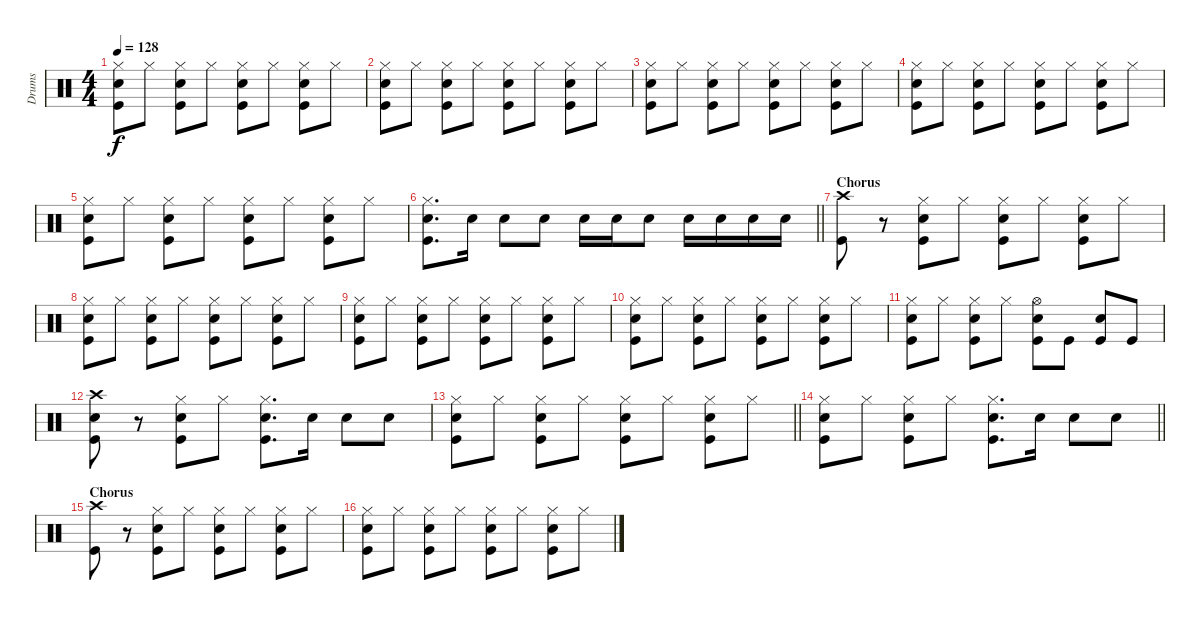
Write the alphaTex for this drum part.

\track ("Drums" "Drums") {instrument percussion}
\staff {score}
\articulation defaults
\ts (4 4)
\tempo 128
\clef neutral
\ks c
("Hi-Hat (closed)" "Snare (hit) 2" "Kick (hit)").8{dy f} "Hi-Hat (closed)".8 ("Hi-Hat (closed)" "Snare (hit) 2" "Kick (hit)").8 "Hi-Hat (closed)".8 ("Hi-Hat (closed)" "Snare (hit) 2" "Kick (hit)").8 "Hi-Hat (closed)".8 ("Hi-Hat (closed)" "Snare (hit) 2" "Kick (hit)").8 "Hi-Hat (closed)".8 |
("Hi-Hat (closed)" "Snare (hit) 2" "Kick (hit)").8 "Hi-Hat (closed)".8 ("Hi-Hat (closed)" "Snare (hit) 2" "Kick (hit)").8 "Hi-Hat (closed)".8 ("Hi-Hat (closed)" "Snare (hit) 2" "Kick (hit)").8 "Hi-Hat (closed)".8 ("Hi-Hat (closed)" "Snare (hit) 2" "Kick (hit)").8 "Hi-Hat (closed)".8 |
("Hi-Hat (closed)" "Snare (hit) 2" "Kick (hit)").8 "Hi-Hat (closed)".8 ("Hi-Hat (closed)" "Snare (hit) 2" "Kick (hit)").8 "Hi-Hat (closed)".8 ("Hi-Hat (closed)" "Snare (hit) 2" "Kick (hit)").8 "Hi-Hat (closed)".8 ("Hi-Hat (closed)" "Snare (hit) 2" "Kick (hit)").8 "Hi-Hat (closed)".8 |
("Hi-Hat (closed)" "Snare (hit) 2" "Kick (hit)").8 "Hi-Hat (closed)".8 ("Hi-Hat (closed)" "Snare (hit) 2" "Kick (hit)").8 "Hi-Hat (closed)".8 ("Hi-Hat (closed)" "Snare (hit) 2" "Kick (hit)").8 "Hi-Hat (closed)".8 ("Hi-Hat (closed)" "Snare (hit) 2" "Kick (hit)").8 "Hi-Hat (closed)".8 |
("Hi-Hat (closed)" "Snare (hit) 2" "Kick (hit)").8 "Hi-Hat (closed)".8 ("Hi-Hat (closed)" "Snare (hit) 2" "Kick (hit)").8 "Hi-Hat (closed)".8 ("Hi-Hat (closed)" "Snare (hit) 2" "Kick (hit)").8 "Hi-Hat (closed)".8 ("Hi-Hat (closed)" "Snare (hit) 2" "Kick (hit)").8 "Hi-Hat (closed)".8 |
\barLineRight lightlight
("Hi-Hat (closed)" "Snare (hit) 2" "Kick (hit)").8{d} "Snare (hit) 2".16 "Snare (hit) 2".8 "Snare (hit) 2".8 "Snare (hit) 2".16 "Snare (hit) 2".16 "Snare (hit) 2".8 "Snare (hit) 2".16 "Snare (hit) 2".16 "Snare (hit) 2".16 "Snare (hit) 2".16 |
\section ("" "Chorus")
("Crash high (hit)" "Kick (hit)").8 r.8 ("Hi-Hat (closed)" "Snare (hit) 2" "Kick (hit)").8 "Hi-Hat (closed)".8 ("Hi-Hat (closed)" "Snare (hit) 2" "Kick (hit)").8 "Hi-Hat (closed)".8 ("Hi-Hat (closed)" "Snare (hit) 2" "Kick (hit)").8 "Hi-Hat (closed)".8 |
("Hi-Hat (closed)" "Snare (hit) 2" "Kick (hit)").8 "Hi-Hat (closed)".8 ("Hi-Hat (closed)" "Snare (hit) 2" "Kick (hit)").8 "Hi-Hat (closed)".8 ("Hi-Hat (closed)" "Snare (hit) 2" "Kick (hit)").8 "Hi-Hat (closed)".8 ("Hi-Hat (closed)" "Snare (hit) 2" "Kick (hit)").8 "Hi-Hat (closed)".8 |
("Hi-Hat (closed)" "Snare (hit) 2" "Kick (hit)").8 "Hi-Hat (closed)".8 ("Hi-Hat (closed)" "Snare (hit) 2" "Kick (hit)").8 "Hi-Hat (closed)".8 ("Hi-Hat (closed)" "Snare (hit) 2" "Kick (hit)").8 "Hi-Hat (closed)".8 ("Hi-Hat (closed)" "Snare (hit) 2" "Kick (hit)").8 "Hi-Hat (closed)".8 |
("Hi-Hat (closed)" "Snare (hit) 2" "Kick (hit)").8 "Hi-Hat (closed)".8 ("Hi-Hat (closed)" "Snare (hit) 2" "Kick (hit)").8 "Hi-Hat (closed)".8 ("Hi-Hat (closed)" "Snare (hit) 2" "Kick (hit)").8 "Hi-Hat (closed)".8 ("Hi-Hat (closed)" "Snare (hit) 2" "Kick (hit)").8 "Hi-Hat (closed)".8 |
("Hi-Hat (closed)" "Snare (hit) 2" "Kick (hit)").8 "Hi-Hat (closed)".8 ("Hi-Hat (closed)" "Snare (hit) 2" "Kick (hit)").8 "Hi-Hat (closed)".8 ("Hi-Hat (open)" "Snare (hit) 2" "Kick (hit)").8 "Kick (hit)".8 ("Snare (hit) 2" "Kick (hit)").8 "Kick (hit)".8 |
("Crash high (hit)" "Snare (hit) 2" "Kick (hit)").8 r.8 ("Hi-Hat (closed)" "Snare (hit) 2" "Kick (hit)").8 "Hi-Hat (closed)".8 ("Hi-Hat (closed)" "Kick (hit)" "Snare (hit) 2").8{d} "Snare (hit) 2".16 "Snare (hit) 2".8 "Snare (hit) 2".8 |
\barLineRight lightlight
("Hi-Hat (closed)" "Snare (hit) 2" "Kick (hit)").8 "Hi-Hat (closed)".8 ("Hi-Hat (closed)" "Snare (hit) 2" "Kick (hit)").8 "Hi-Hat (closed)".8 ("Hi-Hat (closed)" "Snare (hit) 2" "Kick (hit)").8 "Hi-Hat (closed)".8 ("Hi-Hat (closed)" "Snare (hit) 2" "Kick (hit)").8 "Hi-Hat (closed)".8 |
\barLineRight lightlight
("Hi-Hat (closed)" "Snare (hit) 2" "Kick (hit)").8 "Hi-Hat (closed)".8 ("Hi-Hat (closed)" "Snare (hit) 2" "Kick (hit)").8 "Hi-Hat (closed)".8 ("Hi-Hat (closed)" "Kick (hit)" "Snare (hit) 2").8{d} "Snare (hit) 2".16 "Snare (hit) 2".8 "Snare (hit) 2".8 |
\section ("" "Chorus")
("Crash high (hit)" "Kick (hit)").8 r.8 ("Hi-Hat (closed)" "Snare (hit) 2" "Kick (hit)").8 "Hi-Hat (closed)".8 ("Hi-Hat (closed)" "Snare (hit) 2" "Kick (hit)").8 "Hi-Hat (closed)".8 ("Hi-Hat (closed)" "Snare (hit) 2" "Kick (hit)").8 "Hi-Hat (closed)".8 |
("Hi-Hat (closed)" "Snare (hit) 2" "Kick (hit)").8 "Hi-Hat (closed)".8 ("Hi-Hat (closed)" "Snare (hit) 2" "Kick (hit)").8 "Hi-Hat (closed)".8 ("Hi-Hat (closed)" "Snare (hit) 2" "Kick (hit)").8 "Hi-Hat (closed)".8 ("Hi-Hat (closed)" "Snare (hit) 2" "Kick (hit)").8 "Hi-Hat (closed)".8
